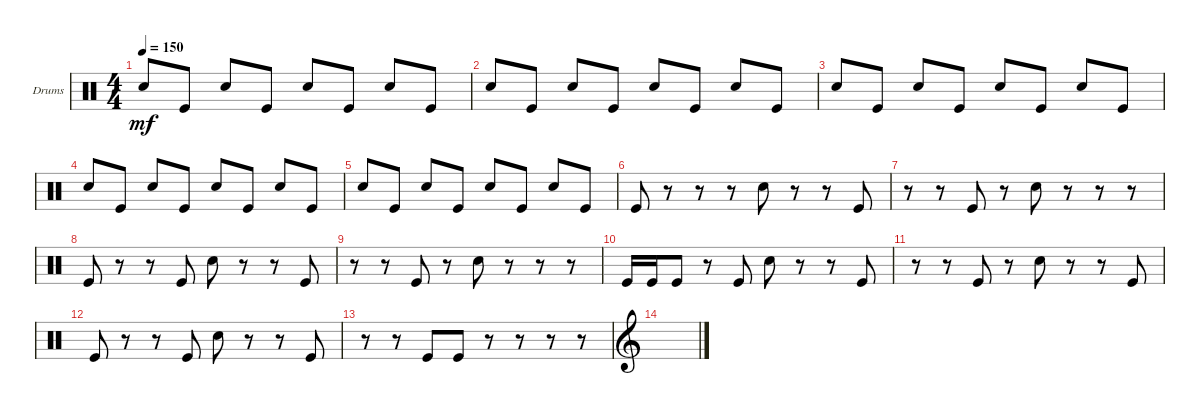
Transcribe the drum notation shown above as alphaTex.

\bracketExtendMode groupsimilarinstruments
\firstSystemTrackNameOrientation horizontal
\otherSystemsTrackNameOrientation horizontal
\track ("Drumkit" "Drums") {instrument percussion}
\staff {score}
\articulation defaults
\ts (4 4)
\tempo 150
\clef neutral
\ks c "Snare (hit) 2".8{dy mf} "Kick (hit)".8 "Snare (hit) 2".8 "Kick (hit)".8 "Snare (hit) 2".8 "Kick (hit)".8 "Snare (hit) 2".8 "Kick (hit)".8
|
"Snare (hit) 2".8 "Kick (hit)".8 "Snare (hit) 2".8 "Kick (hit)".8 "Snare (hit) 2".8 "Kick (hit)".8 "Snare (hit) 2".8 "Kick (hit)".8 |
"Snare (hit) 2".8 "Kick (hit)".8 "Snare (hit) 2".8 "Kick (hit)".8 "Snare (hit) 2".8 "Kick (hit)".8 "Snare (hit) 2".8 "Kick (hit)".8 |
"Snare (hit) 2".8 "Kick (hit)".8 "Snare (hit) 2".8 "Kick (hit)".8 "Snare (hit) 2".8 "Kick (hit)".8 "Snare (hit) 2".8 "Kick (hit)".8 |
"Snare (hit) 2".8 "Kick (hit)".8 "Snare (hit) 2".8 "Kick (hit)".8 "Snare (hit) 2".8 "Kick (hit)".8 "Snare (hit) 2".8 "Kick (hit)".8 |
"Kick (hit)".8 r.8 r.8 r.8 "Snare (hit) 2".8 r.8 r.8 "Kick (hit)".8 |
r.8 r.8 "Kick (hit)".8 r.8 "Snare (hit) 2".8 r.8 r.8 r.8 |
"Kick (hit)".8 r.8 r.8 "Kick (hit)".8 "Snare (hit) 2".8 r.8 r.8 "Kick (hit)".8 |
r.8 r.8 "Kick (hit)".8 r.8 "Snare (hit) 2".8 r.8 r.8 r.8 |
"Kick (hit)".16 "Kick (hit)".16 "Kick (hit)".8 r.8 "Kick (hit)".8 "Snare (hit) 2".8 r.8 r.8 "Kick (hit)".8 |
r.8 r.8 "Kick (hit)".8 r.8 "Snare (hit) 2".8 r.8 r.8 "Kick (hit)".8 |
"Kick (hit)".8 r.8 r.8 "Kick (hit)".8 "Snare (hit) 2".8 r.8 r.8 "Kick (hit)".8 |
r.8 r.8 "Kick (hit)".8 "Kick (hit)".8 r.8 r.8 r.8 r.8 |
\clef g2
